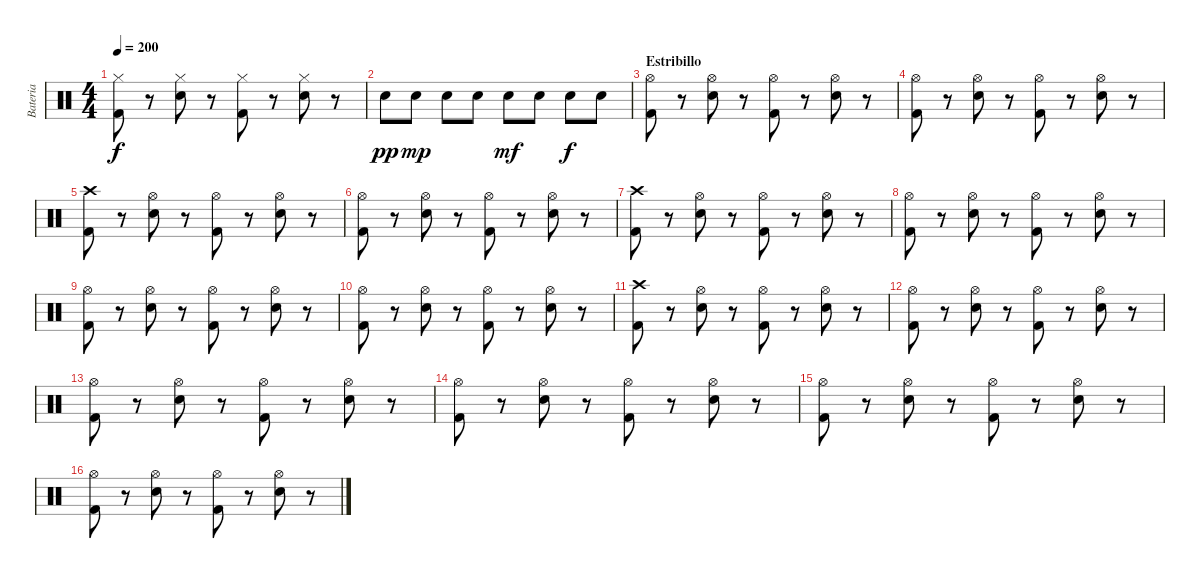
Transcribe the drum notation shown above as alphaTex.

\track ("Bateria" "Bateria") {instrument percussion}
\staff {score}
\articulation defaults
\ts (4 4)
\tempo 200
\clef neutral
\ks c
("Hi-Hat (closed)" "Kick (hit) 2").8{dy f} r.8 ("Hi-Hat (closed)" "Snare (hit) 2").8 r.8 ("Hi-Hat (closed)" "Kick (hit) 2").8 r.8 ("Hi-Hat (closed)" "Snare (hit) 2").8 r.8 |
"Snare (hit) 2".8{dy pp} "Snare (hit) 2".8{dy mp} "Snare (hit) 2".8 "Snare (hit) 2".8 "Snare (hit) 2".8{dy mf} "Snare (hit) 2".8 "Snare (hit) 2".8{dy f} "Snare (hit) 2".8 |
\section ("" "Estribillo")
("Hi-Hat (open)" "Kick (hit) 2").8 r.8 ("Hi-Hat (open)" "Snare (hit) 2").8 r.8 ("Hi-Hat (open)" "Kick (hit) 2").8 r.8 ("Hi-Hat (open)" "Snare (hit) 2").8 r.8 |
("Hi-Hat (open)" "Kick (hit) 2").8 r.8 ("Hi-Hat (open)" "Snare (hit) 2").8 r.8 ("Hi-Hat (open)" "Kick (hit) 2").8 r.8 ("Hi-Hat (open)" "Snare (hit) 2").8 r.8 |
("Crash high (hit)" "Kick (hit) 2").8 r.8 ("Hi-Hat (open)" "Snare (hit) 2").8 r.8 ("Hi-Hat (open)" "Kick (hit) 2").8 r.8 ("Hi-Hat (open)" "Snare (hit) 2").8 r.8 |
("Hi-Hat (open)" "Kick (hit) 2").8 r.8 ("Hi-Hat (open)" "Snare (hit) 2").8 r.8 ("Hi-Hat (open)" "Kick (hit) 2").8 r.8 ("Hi-Hat (open)" "Snare (hit) 2").8 r.8 |
("Crash high (hit)" "Kick (hit) 2").8 r.8 ("Hi-Hat (open)" "Snare (hit) 2").8 r.8 ("Hi-Hat (open)" "Kick (hit) 2").8 r.8 ("Hi-Hat (open)" "Snare (hit) 2").8 r.8 |
("Hi-Hat (open)" "Kick (hit) 2").8 r.8 ("Hi-Hat (open)" "Snare (hit) 2").8 r.8 ("Hi-Hat (open)" "Kick (hit) 2").8 r.8 ("Hi-Hat (open)" "Snare (hit) 2").8 r.8 |
("Hi-Hat (open)" "Kick (hit) 2").8 r.8 ("Hi-Hat (open)" "Snare (hit) 2").8 r.8 ("Hi-Hat (open)" "Kick (hit) 2").8 r.8 ("Hi-Hat (open)" "Snare (hit) 2").8 r.8 |
("Hi-Hat (open)" "Kick (hit) 2").8 r.8 ("Hi-Hat (open)" "Snare (hit) 2").8 r.8 ("Hi-Hat (open)" "Kick (hit) 2").8 r.8 ("Hi-Hat (open)" "Snare (hit) 2").8 r.8 |
("Crash high (hit)" "Kick (hit) 2").8 r.8 ("Hi-Hat (open)" "Snare (hit) 2").8 r.8 ("Hi-Hat (open)" "Kick (hit) 2").8 r.8 ("Hi-Hat (open)" "Snare (hit) 2").8 r.8 |
("Hi-Hat (open)" "Kick (hit) 2").8 r.8 ("Hi-Hat (open)" "Snare (hit) 2").8 r.8 ("Hi-Hat (open)" "Kick (hit) 2").8 r.8 ("Hi-Hat (open)" "Snare (hit) 2").8 r.8 |
("Hi-Hat (open)" "Kick (hit) 2").8 r.8 ("Hi-Hat (open)" "Snare (hit) 2").8 r.8 ("Hi-Hat (open)" "Kick (hit) 2").8 r.8 ("Hi-Hat (open)" "Snare (hit) 2").8 r.8 |
("Hi-Hat (open)" "Kick (hit) 2").8 r.8 ("Hi-Hat (open)" "Snare (hit) 2").8 r.8 ("Hi-Hat (open)" "Kick (hit) 2").8 r.8 ("Hi-Hat (open)" "Snare (hit) 2").8 r.8 |
("Hi-Hat (open)" "Kick (hit) 2").8 r.8 ("Hi-Hat (open)" "Snare (hit) 2").8 r.8 ("Hi-Hat (open)" "Kick (hit) 2").8 r.8 ("Hi-Hat (open)" "Snare (hit) 2").8 r.8 |
("Hi-Hat (open)" "Kick (hit) 2").8 r.8 ("Hi-Hat (open)" "Snare (hit) 2").8 r.8 ("Hi-Hat (open)" "Kick (hit) 2").8 r.8 ("Hi-Hat (open)" "Snare (hit) 2").8 r.8
